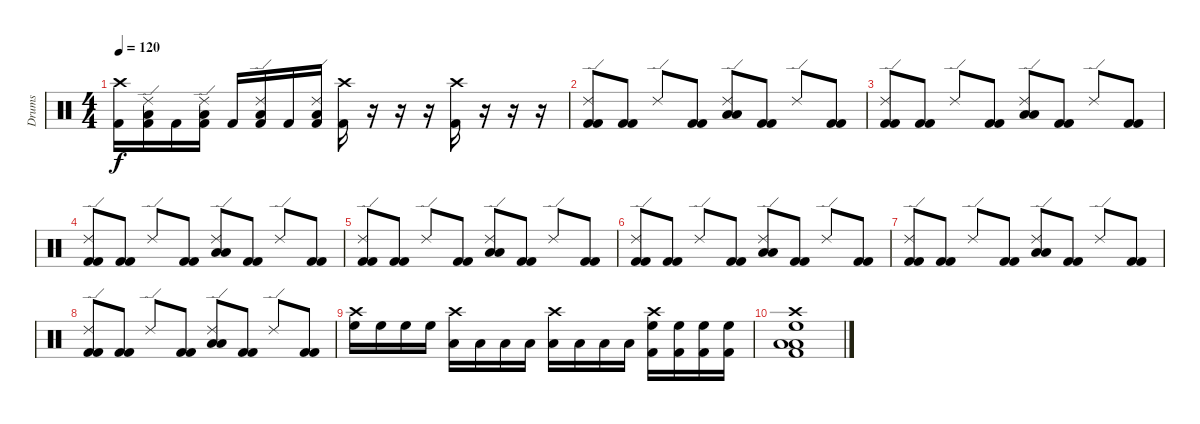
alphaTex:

\track ("Drums" "Drums") {instrument percussion}
\staff {score}
\articulation defaults
\ts (4 4)
\tempo 120
\clef neutral
\ks c
("Crash high (hit)" "Kick (hit) 2").16{dy f} ("Ride (edge) 2" "Low Tom (hit)" "Kick (hit) 2").16 "Kick (hit) 2".16 ("Ride (edge) 2" "Low Tom (hit)" "Kick (hit) 2").16 "Kick (hit) 2".16 ("Ride (edge) 2" "Low Tom (hit)" "Kick (hit) 2").16 "Kick (hit) 2".16 ("Ride (edge) 2" "Low Tom (hit)" "Kick (hit) 2").16 ("Crash high (hit)" "Kick (hit) 2").16 r.16 r.16 r.16 ("Crash high (hit)" "Kick (hit) 2").16 r.16 r.16 r.16 |
("Ride (edge) 2" "Kick (hit) 2" "Kick (hit) 2").8 ("Kick (hit) 2" "Kick (hit) 2").8 "Ride (edge) 2".8 ("Kick (hit) 2" "Kick (hit) 2").8 ("Ride (edge) 2" "Low Floor Tom (hit)" "Low Tom (hit)").8 ("Kick (hit) 2" "Kick (hit) 2").8 "Ride (edge) 2".8 ("Kick (hit) 2" "Kick (hit) 2").8 |
("Ride (edge) 2" "Kick (hit) 2" "Kick (hit) 2").8 ("Kick (hit) 2" "Kick (hit) 2").8 "Ride (edge) 2".8 ("Kick (hit) 2" "Kick (hit) 2").8 ("Ride (edge) 2" "Low Floor Tom (hit)" "Low Tom (hit)").8 ("Kick (hit) 2" "Kick (hit) 2").8 "Ride (edge) 2".8 ("Kick (hit) 2" "Kick (hit) 2").8 |
("Ride (edge) 2" "Kick (hit) 2" "Kick (hit) 2").8 ("Kick (hit) 2" "Kick (hit) 2").8 "Ride (edge) 2".8 ("Kick (hit) 2" "Kick (hit) 2").8 ("Ride (edge) 2" "Low Floor Tom (hit)" "Low Tom (hit)").8 ("Kick (hit) 2" "Kick (hit) 2").8 "Ride (edge) 2".8 ("Kick (hit) 2" "Kick (hit) 2").8 |
("Ride (edge) 2" "Kick (hit) 2" "Kick (hit) 2").8 ("Kick (hit) 2" "Kick (hit) 2").8 "Ride (edge) 2".8 ("Kick (hit) 2" "Kick (hit) 2").8 ("Ride (edge) 2" "Low Floor Tom (hit)" "Low Tom (hit)").8 ("Kick (hit) 2" "Kick (hit) 2").8 "Ride (edge) 2".8 ("Kick (hit) 2" "Kick (hit) 2").8 |
("Ride (edge) 2" "Kick (hit) 2" "Kick (hit) 2").8 ("Kick (hit) 2" "Kick (hit) 2").8 "Ride (edge) 2".8 ("Kick (hit) 2" "Kick (hit) 2").8 ("Ride (edge) 2" "Low Floor Tom (hit)" "Low Tom (hit)").8 ("Kick (hit) 2" "Kick (hit) 2").8 "Ride (edge) 2".8 ("Kick (hit) 2" "Kick (hit) 2").8 |
("Ride (edge) 2" "Kick (hit) 2" "Kick (hit) 2").8 ("Kick (hit) 2" "Kick (hit) 2").8 "Ride (edge) 2".8 ("Kick (hit) 2" "Kick (hit) 2").8 ("Ride (edge) 2" "Low Floor Tom (hit)" "Low Tom (hit)").8 ("Kick (hit) 2" "Kick (hit) 2").8 "Ride (edge) 2".8 ("Kick (hit) 2" "Kick (hit) 2").8 |
("Ride (edge) 2" "Kick (hit) 2" "Kick (hit) 2").8 ("Kick (hit) 2" "Kick (hit) 2").8 "Ride (edge) 2".8 ("Kick (hit) 2" "Kick (hit) 2").8 ("Ride (edge) 2" "Low Floor Tom (hit)" "Low Tom (hit)").8 ("Kick (hit) 2" "Kick (hit) 2").8 "Ride (edge) 2".8 ("Kick (hit) 2" "Kick (hit) 2").8 |
("Crash high (hit)" "High Floor Tom (hit)").16 "High Floor Tom (hit)".16 "High Floor Tom (hit)".16 "High Floor Tom (hit)".16 ("Crash high (hit)" "Low Floor Tom (hit)").16 "Low Floor Tom (hit)".16 "Low Floor Tom (hit)".16 "Low Floor Tom (hit)".16 ("Crash high (hit)" "Low Tom (hit)").16 "Low Tom (hit)".16 "Low Tom (hit)".16 "Low Tom (hit)".16 ("Crash high (hit)" "High Floor Tom (hit)" "Kick (hit) 2").16 ("High Floor Tom (hit)" "Kick (hit) 2").16 ("High Floor Tom (hit)" "Kick (hit) 2").16 ("High Floor Tom (hit)" "Kick (hit) 2").16 |
("Low Floor Tom (hit)" "High Floor Tom (hit)" "Crash high (hit)" "Low Tom (hit)" "Kick (hit) 2").1
